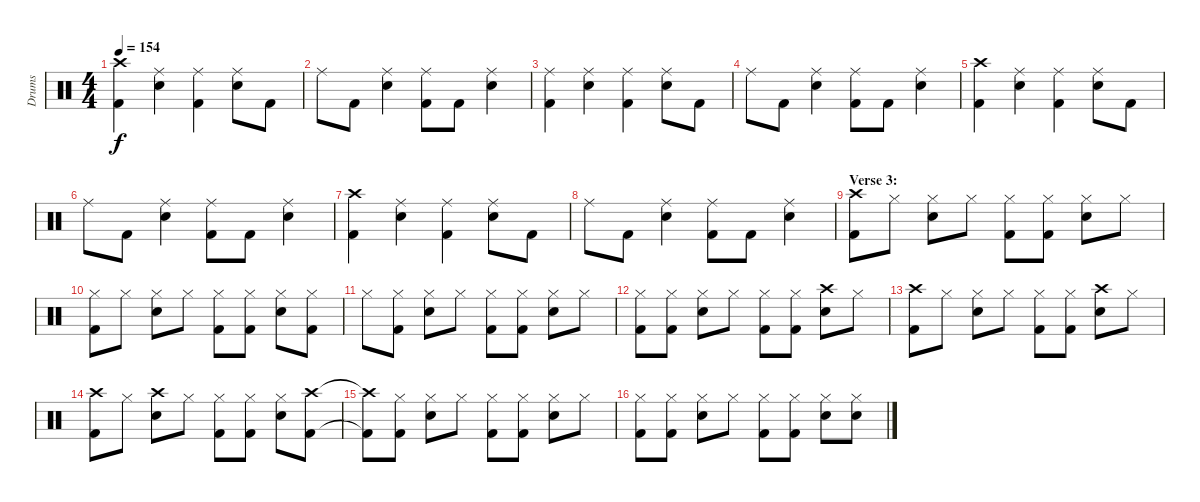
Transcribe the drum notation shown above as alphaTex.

\track ("Drums" "Drums") {instrument percussion}
\staff {score}
\articulation defaults
\ts (4 4)
\tempo 154
\clef neutral
\ks c
("Crash high (hit)" "Kick (hit) 2").4{dy f} ("Ride (middle)" "Snare (hit) 2").4 ("Ride (middle)" "Kick (hit) 2").4 ("Ride (middle)" "Snare (hit) 2").8 "Kick (hit) 2".8 |
"Ride (middle)".8 "Kick (hit) 2".8 ("Ride (middle)" "Snare (hit) 2").4 ("Ride (middle)" "Kick (hit) 2").8 "Kick (hit) 2".8 ("Ride (middle)" "Snare (hit) 2").4 |
("Ride (middle)" "Kick (hit) 2").4 ("Ride (middle)" "Snare (hit) 2").4 ("Ride (middle)" "Kick (hit) 2").4 ("Ride (middle)" "Snare (hit) 2").8 "Kick (hit) 2".8 |
"Ride (middle)".8 "Kick (hit) 2".8 ("Ride (middle)" "Snare (hit) 2").4 ("Ride (middle)" "Kick (hit) 2").8 "Kick (hit) 2".8 ("Ride (middle)" "Snare (hit) 2").4 |
("Crash high (hit)" "Kick (hit) 2").4 ("Ride (middle)" "Snare (hit) 2").4 ("Ride (middle)" "Kick (hit) 2").4 ("Ride (middle)" "Snare (hit) 2").8 "Kick (hit) 2".8 |
"Ride (middle)".8 "Kick (hit) 2".8 ("Ride (middle)" "Snare (hit) 2").4 ("Ride (middle)" "Kick (hit) 2").8 "Kick (hit) 2".8 ("Ride (middle)" "Snare (hit) 2").4 |
("Crash high (hit)" "Kick (hit) 2").4 ("Ride (middle)" "Snare (hit) 2").4 ("Ride (middle)" "Kick (hit) 2").4 ("Ride (middle)" "Snare (hit) 2").8 "Kick (hit) 2".8 |
"Ride (middle)".8 "Kick (hit) 2".8 ("Ride (middle)" "Snare (hit) 2").4 ("Ride (middle)" "Kick (hit) 2").8 "Kick (hit) 2".8 ("Ride (middle)" "Snare (hit) 2").4 |
\section ("" "Verse 3:")
("Crash high (hit)" "Kick (hit) 2").8 "Hi-Hat (closed)".8 ("Hi-Hat (closed)" "Snare (hit) 2").8 "Hi-Hat (closed)".8 ("Hi-Hat (closed)" "Kick (hit) 2").8 ("Hi-Hat (closed)" "Kick (hit) 2").8 ("Hi-Hat (closed)" "Snare (hit) 2").8 "Hi-Hat (closed)".8 |
("Hi-Hat (closed)" "Kick (hit) 2").8 "Hi-Hat (closed)".8 ("Hi-Hat (closed)" "Snare (hit) 2").8 "Hi-Hat (closed)".8 ("Hi-Hat (closed)" "Kick (hit) 2").8 ("Hi-Hat (closed)" "Kick (hit) 2").8 ("Hi-Hat (closed)" "Snare (hit) 2").8 ("Hi-Hat (closed)" "Kick (hit) 2").8 |
"Hi-Hat (closed)".8 ("Hi-Hat (closed)" "Kick (hit) 2").8 ("Hi-Hat (closed)" "Snare (hit) 2").8 "Hi-Hat (closed)".8 ("Hi-Hat (closed)" "Kick (hit) 2").8 ("Hi-Hat (closed)" "Kick (hit) 2").8 ("Hi-Hat (closed)" "Snare (hit) 2").8 "Hi-Hat (closed)".8 |
("Hi-Hat (closed)" "Kick (hit) 2").8 ("Hi-Hat (closed)" "Kick (hit) 2").8 ("Hi-Hat (closed)" "Snare (hit) 2").8 "Hi-Hat (closed)".8 ("Hi-Hat (closed)" "Kick (hit) 2").8 ("Hi-Hat (closed)" "Kick (hit) 2").8 ("Crash high (hit)" "Snare (hit) 2").8 "Hi-Hat (closed)".8 |
("Crash high (hit)" "Kick (hit) 2").8 "Hi-Hat (closed)".8 ("Hi-Hat (closed)" "Snare (hit) 2").8 "Hi-Hat (closed)".8 ("Hi-Hat (closed)" "Kick (hit) 2").8 ("Hi-Hat (closed)" "Kick (hit) 2").8 ("Crash high (hit)" "Snare (hit) 2").8 "Hi-Hat (closed)".8 |
("Crash high (hit)" "Kick (hit) 2").8 "Hi-Hat (closed)".8 ("Crash high (hit)" "Snare (hit) 2").8 "Hi-Hat (closed)".8 ("Hi-Hat (closed)" "Kick (hit) 2").8 ("Hi-Hat (closed)" "Kick (hit) 2").8 ("Hi-Hat (closed)" "Snare (hit) 2").8 ("Crash high (hit)" "Kick (hit) 2").8 |
("Crash high (hit)"{t} "Kick (hit) 2"{t}).8 ("Hi-Hat (closed)" "Kick (hit) 2").8 ("Hi-Hat (closed)" "Snare (hit) 2").8 "Hi-Hat (closed)".8 ("Hi-Hat (closed)" "Kick (hit) 2").8 ("Hi-Hat (closed)" "Kick (hit) 2").8 ("Hi-Hat (closed)" "Snare (hit) 2").8 "Hi-Hat (closed)".8 |
("Hi-Hat (closed)" "Kick (hit) 2").8 ("Hi-Hat (closed)" "Kick (hit) 2").8 ("Hi-Hat (closed)" "Snare (hit) 2").8 "Hi-Hat (closed)".8 ("Hi-Hat (closed)" "Kick (hit) 2").8 ("Hi-Hat (closed)" "Kick (hit) 2").8 ("Hi-Hat (closed)" "Snare (hit) 2").8 ("Hi-Hat (closed)" "Snare (hit) 2").8
